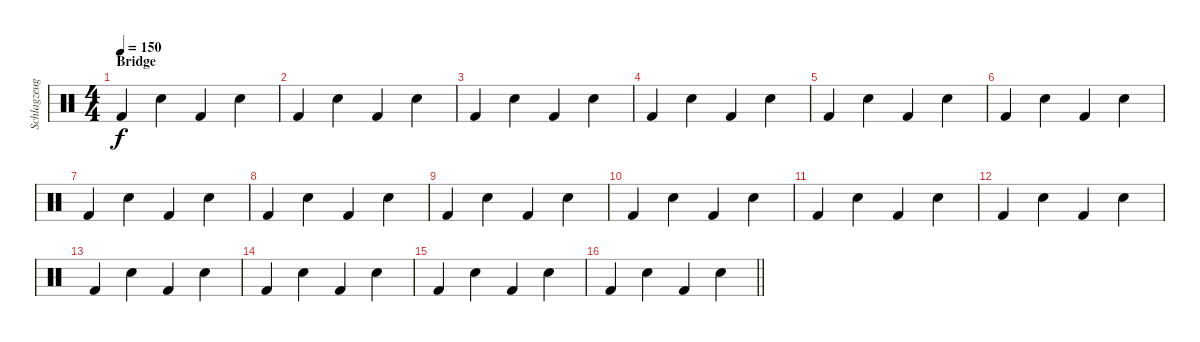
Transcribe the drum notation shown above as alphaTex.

\track ("Schlagzeug" "Schlagzeug") {instrument percussion}
\staff {score}
\articulation defaults
\ts (4 4)
\section ("" "Bridge")
\tempo 150
\clef neutral
\ks c "Kick (hit) 2".4{dy f} "Electric Snare (hit)".4 "Kick (hit) 2".4 "Electric Snare (hit)".4
|
"Kick (hit) 2".4 "Electric Snare (hit)".4 "Kick (hit) 2".4 "Electric Snare (hit)".4 |
"Kick (hit) 2".4 "Electric Snare (hit)".4 "Kick (hit) 2".4 "Electric Snare (hit)".4 |
"Kick (hit) 2".4 "Electric Snare (hit)".4 "Kick (hit) 2".4 "Electric Snare (hit)".4 |
"Kick (hit) 2".4 "Electric Snare (hit)".4 "Kick (hit) 2".4 "Electric Snare (hit)".4 |
"Kick (hit) 2".4 "Electric Snare (hit)".4 "Kick (hit) 2".4 "Electric Snare (hit)".4 |
"Kick (hit) 2".4 "Electric Snare (hit)".4 "Kick (hit) 2".4 "Electric Snare (hit)".4 |
"Kick (hit) 2".4 "Electric Snare (hit)".4 "Kick (hit) 2".4 "Electric Snare (hit)".4 |
"Kick (hit) 2".4 "Electric Snare (hit)".4 "Kick (hit) 2".4 "Electric Snare (hit)".4 |
"Kick (hit) 2".4 "Electric Snare (hit)".4 "Kick (hit) 2".4 "Electric Snare (hit)".4 |
"Kick (hit) 2".4 "Electric Snare (hit)".4 "Kick (hit) 2".4 "Electric Snare (hit)".4 |
"Kick (hit) 2".4 "Electric Snare (hit)".4 "Kick (hit) 2".4 "Electric Snare (hit)".4 |
"Kick (hit) 2".4 "Electric Snare (hit)".4 "Kick (hit) 2".4 "Electric Snare (hit)".4 |
"Kick (hit) 2".4 "Electric Snare (hit)".4 "Kick (hit) 2".4 "Electric Snare (hit)".4 |
"Kick (hit) 2".4 "Electric Snare (hit)".4 "Kick (hit) 2".4 "Electric Snare (hit)".4 |
\barLineRight lightlight "Kick (hit) 2".4 "Electric Snare (hit)".4 "Kick (hit) 2".4 "Electric Snare (hit)".4
